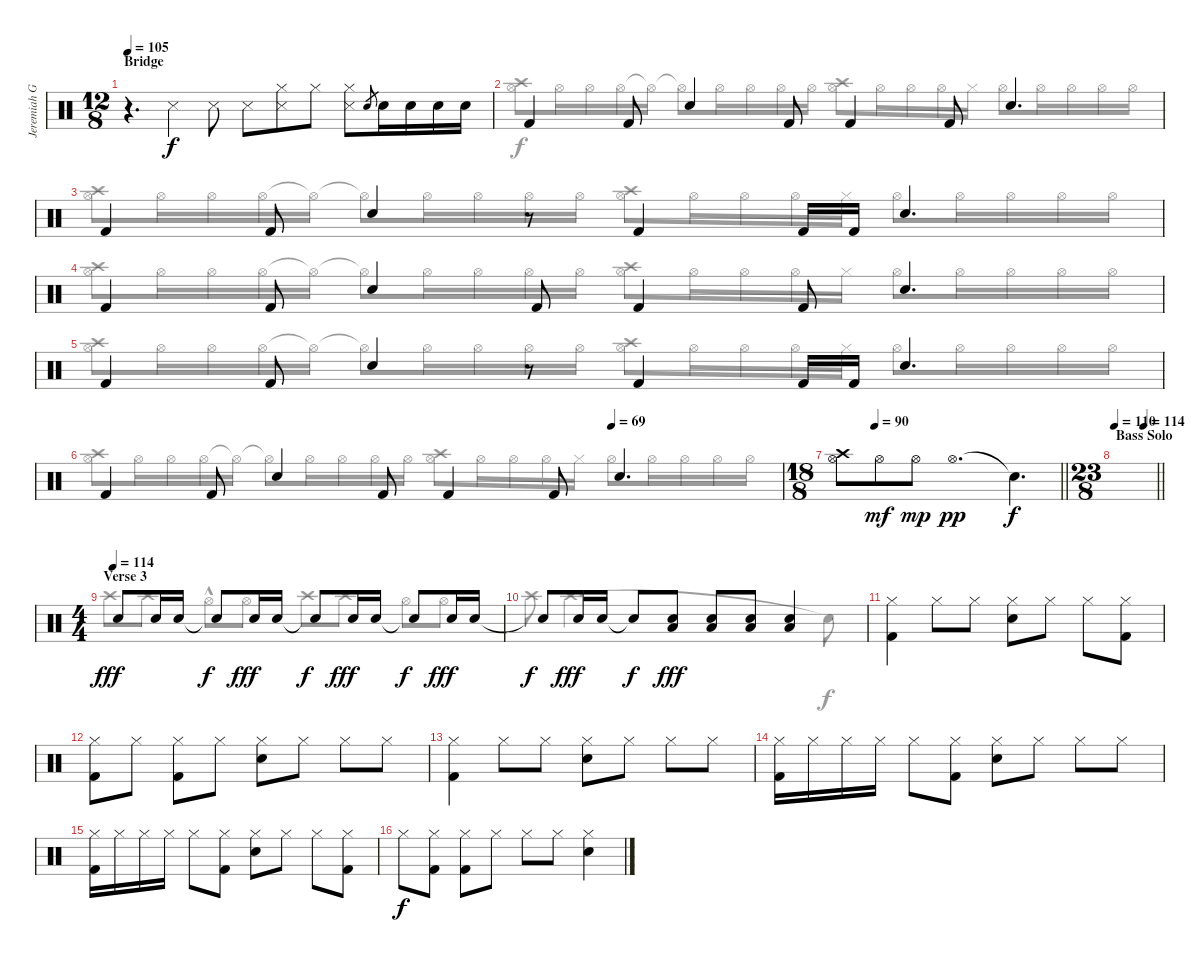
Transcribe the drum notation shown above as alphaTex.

\track ("Jeremiah Green" "Jeremiah G") {instrument percussion}
\staff {score}
\articulation defaults
\voice
\ts (12 8)
\section ("" "Bridge")
\tempo 105
\clef neutral
\ks c
r.4{d dy f} "Snare (side stick) 3".4 "Snare (side stick) 3".8 "Snare (side stick) 3".8 ("Hi-Hat (closed)" "Snare (side stick) 3").8 "Hi-Hat (closed)".8 ("Hi-Hat (closed)" "Snare (side stick) 3").8 "Snare (hit) 2".8{gr} "Snare (hit) 2".16 "Snare (hit) 2".16 "Snare (hit) 2".16 "Snare (hit) 2".16 |
"Kick (hit) 2".4 "Kick (hit) 2".8 "Snare (hit) 2".4 "Kick (hit) 2".8 "Kick (hit) 2".4 "Kick (hit) 2".8 "Snare (hit) 2".4{d} |
"Kick (hit) 2".4 "Kick (hit) 2".8 "Snare (hit) 2".4 r.8 "Kick (hit) 2".4 "Kick (hit) 2".16 "Kick (hit) 2".16 "Snare (hit) 2".4{d} |
"Kick (hit) 2".4 "Kick (hit) 2".8 "Snare (hit) 2".4 "Kick (hit) 2".8 "Kick (hit) 2".4 "Kick (hit) 2".8 "Snare (hit) 2".4{d} |
"Kick (hit) 2".4 "Kick (hit) 2".8 "Snare (hit) 2".4 r.8 "Kick (hit) 2".4 "Kick (hit) 2".16 "Kick (hit) 2".16 "Snare (hit) 2".4{d} |
\tempo (69 0.75)
"Kick (hit) 2".4 "Kick (hit) 2".8 "Snare (hit) 2".4 "Kick (hit) 2".8 "Kick (hit) 2".4 "Kick (hit) 2".8 "Snare (hit) 2".4{d} |
\ts (18 8)
\tempo (90 0.16666666666666666)
\barLineRight lightlight
("Crash high (hit)" "Hi-Hat (open)").8 "Hi-Hat (open)".8{dy mf} "Hi-Hat (open)".8{dy mp} "Hi-Hat (open)".1{d dy pp} "Snare (hit)"{t}.4{d dy f} |
\ts (23 8)
\section ("" "Bass Solo")
\tempo 110
\tempo (114 0.6956521739130435)
\barLineRight lightlight
|
\ts (4 4)
\section ("" "Verse 3")
\tempo (114)
"Electric Snare (hit)".8{dy fff} "Snare (hit) 2".16 "Snare (hit) 2".16 "Electric Snare (hit)"{t}.8{dy f} "Snare (hit) 2".16{dy fff} "Snare (hit) 2".16 "Electric Snare (hit)"{t}.8{dy f} "Snare (hit) 2".16{dy fff} "Snare (hit) 2".16 "Electric Snare (hit)"{t}.8{dy f} "Snare (hit) 2".16{dy fff} "Snare (hit) 2".16 |
"Snare (hit)"{t}.8{dy f} "Snare (hit) 2".16{dy fff} "Snare (hit) 2".16 "Snare (hit)"{t}.8{dy f} ("Low Floor Tom (hit)" "Snare (hit) 2").8{dy fff} ("Low Floor Tom (hit)" "Snare (hit) 2").8 ("Low Floor Tom (hit)" "Snare (hit) 2").8 ("Low Floor Tom (hit)" "Snare (hit) 2").4 |
("Hi-Hat (closed)" "Kick (hit) 2").4 "Hi-Hat (closed)".8 "Hi-Hat (closed)".8 ("Hi-Hat (closed)" "Snare (hit) 2").8 "Hi-Hat (closed)".8 "Hi-Hat (closed)".8 ("Hi-Hat (closed)" "Kick (hit) 2").8 |
("Hi-Hat (closed)" "Kick (hit) 2").8 "Hi-Hat (closed)".8 ("Hi-Hat (closed)" "Kick (hit) 2").8 "Hi-Hat (closed)".8 ("Hi-Hat (closed)" "Snare (hit) 2").8 "Hi-Hat (closed)".8 "Hi-Hat (closed)".8 "Hi-Hat (closed)".8 |
("Hi-Hat (closed)" "Kick (hit) 2").4 "Hi-Hat (closed)".8 "Hi-Hat (closed)".8 ("Hi-Hat (closed)" "Snare (hit) 2").8 "Hi-Hat (closed)".8 "Hi-Hat (closed)".8 "Hi-Hat (closed)".8 |
("Hi-Hat (closed)" "Kick (hit) 2").16 "Hi-Hat (closed)".16 "Hi-Hat (closed)".16 "Hi-Hat (closed)".16 "Hi-Hat (closed)".8 ("Hi-Hat (closed)" "Kick (hit) 2").8 ("Hi-Hat (closed)" "Snare (hit) 2").8 "Hi-Hat (closed)".8 "Hi-Hat (closed)".8 "Hi-Hat (closed)".8 |
("Hi-Hat (closed)" "Kick (hit) 2").16 "Hi-Hat (closed)".16 "Hi-Hat (closed)".16 "Hi-Hat (closed)".16 "Hi-Hat (closed)".8 ("Hi-Hat (closed)" "Kick (hit) 2").8 ("Hi-Hat (closed)" "Snare (hit) 2").8 "Hi-Hat (closed)".8 "Hi-Hat (closed)".8 ("Hi-Hat (closed)" "Kick (hit) 2").8 |
"Hi-Hat (closed)".8{dy f} ("Hi-Hat (closed)" "Kick (hit) 2").8 ("Hi-Hat (closed)" "Kick (hit) 2").8 "Hi-Hat (closed)".8 "Hi-Hat (closed)".8 "Hi-Hat (closed)".8 ("Hi-Hat (closed)" "Snare (hit) 2").4
\voice
\clef neutral
\ottava regular
\simile none
\ks c
|
("Hi-Hat (open)" "Crash high (hit)").8 "Hi-Hat (open)".16 "Hi-Hat (open)".16 "Hi-Hat (open)".16 "Hi-Hat (open)"{t}.16 "Hi-Hat (open)"{t}.8 "Hi-Hat (open)".16 "Hi-Hat (open)".16 "Hi-Hat (open)".16 "Hi-Hat (open)".16 ("Hi-Hat (open)" "Crash high (hit)").8 "Hi-Hat (open)".16 "Hi-Hat (open)".16 "Hi-Hat (open)".16 "Hi-Hat (closed)".16 "Hi-Hat (open)".8 "Hi-Hat (open)".16 "Hi-Hat (open)".16 "Hi-Hat (open)".16 "Hi-Hat (open)".16 |
("Hi-Hat (open)" "Crash high (hit)").8 "Hi-Hat (open)".16 "Hi-Hat (open)".16 "Hi-Hat (open)".16 "Hi-Hat (open)"{t}.16 "Hi-Hat (open)"{t}.8 "Hi-Hat (open)".16 "Hi-Hat (open)".16 "Hi-Hat (open)".16 "Hi-Hat (open)".16 ("Hi-Hat (open)" "Crash high (hit)").8 "Hi-Hat (open)".16 "Hi-Hat (open)".16 "Hi-Hat (open)".16 "Hi-Hat (closed)".16 "Hi-Hat (open)".8 "Hi-Hat (open)".16 "Hi-Hat (open)".16 "Hi-Hat (open)".16 "Hi-Hat (open)".16 |
("Hi-Hat (open)" "Crash high (hit)").8 "Hi-Hat (open)".16 "Hi-Hat (open)".16 "Hi-Hat (open)".16 "Hi-Hat (open)"{t}.16 "Hi-Hat (open)"{t}.8 "Hi-Hat (open)".16 "Hi-Hat (open)".16 "Hi-Hat (open)".16 "Hi-Hat (open)".16 ("Hi-Hat (open)" "Crash high (hit)").8 "Hi-Hat (open)".16 "Hi-Hat (open)".16 "Hi-Hat (open)".16 "Hi-Hat (closed)".16 "Hi-Hat (open)".8 "Hi-Hat (open)".16 "Hi-Hat (open)".16 "Hi-Hat (open)".16 "Hi-Hat (open)".16 |
("Hi-Hat (open)" "Crash high (hit)").8 "Hi-Hat (open)".16 "Hi-Hat (open)".16 "Hi-Hat (open)".16 "Hi-Hat (open)"{t}.16 "Hi-Hat (open)"{t}.8 "Hi-Hat (open)".16 "Hi-Hat (open)".16 "Hi-Hat (open)".16 "Hi-Hat (open)".16 ("Hi-Hat (open)" "Crash high (hit)").8 "Hi-Hat (open)".16 "Hi-Hat (open)".16 "Hi-Hat (open)".16 "Hi-Hat (closed)".16 "Hi-Hat (open)".8 "Hi-Hat (open)".16 "Hi-Hat (open)".16 "Hi-Hat (open)".16 "Hi-Hat (open)".16 |
("Hi-Hat (open)" "Crash high (hit)").8 "Hi-Hat (open)".16 "Hi-Hat (open)".16 "Hi-Hat (open)".16 "Hi-Hat (open)"{t}.16 "Hi-Hat (open)"{t}.8 "Hi-Hat (open)".16 "Hi-Hat (open)".16 "Hi-Hat (open)".16 "Hi-Hat (open)".16 ("Hi-Hat (open)" "Crash high (hit)").8 "Hi-Hat (open)".16 "Hi-Hat (open)".16 "Hi-Hat (open)".16 "Hi-Hat (closed)".16 "Hi-Hat (open)".8 "Hi-Hat (open)".16 "Hi-Hat (open)".16 "Hi-Hat (open)".16 "Hi-Hat (open)".16 |
\barLineRight lightlight
|
\barLineRight lightlight
|
"Crash high (hit)".8{dy fff} "Crash high (hit)".8 "Hi-Hat (open)"{hac}.8 "Hi-Hat (open)".8 "Crash high (hit)".8 "Crash high (hit)".8 "Hi-Hat (open)".8 "Hi-Hat (open)".8 |
"Crash high (hit)".8 "Crash high (hit)".2{d} "Snare (hit)"{t}.8{dy f} |
|
|
|
|
|
